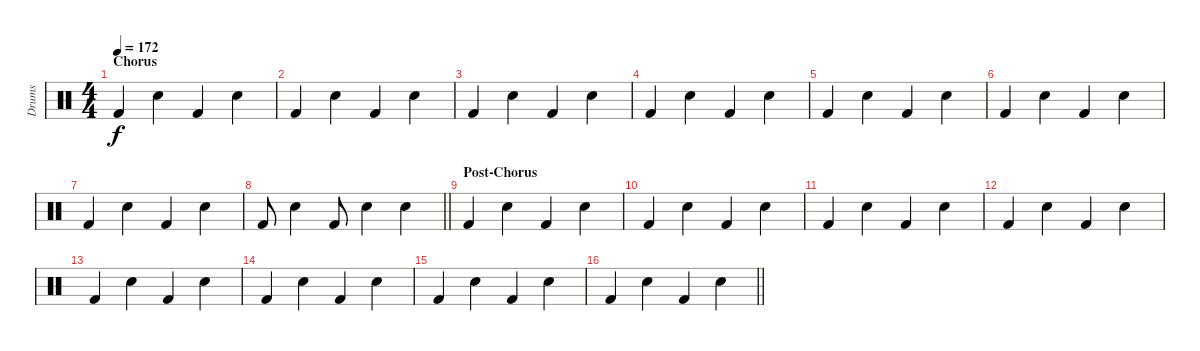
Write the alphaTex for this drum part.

\track ("Drums" "Drums") {instrument percussion}
\staff {score}
\articulation defaults
\ts (4 4)
\section ("" "Chorus")
\tempo 172
\clef neutral
\ks c "Kick (hit) 2".4{dy f} "Snare (hit) 2".4 "Kick (hit) 2".4 "Snare (hit) 2".4
|
"Kick (hit) 2".4 "Snare (hit) 2".4 "Kick (hit) 2".4 "Snare (hit) 2".4 |
"Kick (hit) 2".4 "Snare (hit) 2".4 "Kick (hit) 2".4 "Snare (hit) 2".4 |
"Kick (hit) 2".4 "Snare (hit) 2".4 "Kick (hit) 2".4 "Snare (hit) 2".4 |
"Kick (hit) 2".4 "Snare (hit) 2".4 "Kick (hit) 2".4 "Snare (hit) 2".4 |
"Kick (hit) 2".4 "Snare (hit) 2".4 "Kick (hit) 2".4 "Snare (hit) 2".4 |
"Kick (hit) 2".4 "Snare (hit) 2".4 "Kick (hit) 2".4 "Snare (hit) 2".4 |
\barLineRight lightlight "Kick (hit) 2".8 "Snare (hit) 2".4 "Kick (hit) 2".8 "Snare (hit) 2".4 "Snare (hit) 2".4
|
\section ("" "Post-Chorus")
"Kick (hit) 2".4 "Snare (hit) 2".4 "Kick (hit) 2".4 "Snare (hit) 2".4 |
"Kick (hit) 2".4 "Snare (hit) 2".4 "Kick (hit) 2".4 "Snare (hit) 2".4 |
"Kick (hit) 2".4 "Snare (hit) 2".4 "Kick (hit) 2".4 "Snare (hit) 2".4 |
"Kick (hit) 2".4 "Snare (hit) 2".4 "Kick (hit) 2".4 "Snare (hit) 2".4 |
"Kick (hit) 2".4 "Snare (hit) 2".4 "Kick (hit) 2".4 "Snare (hit) 2".4 |
"Kick (hit) 2".4 "Snare (hit) 2".4 "Kick (hit) 2".4 "Snare (hit) 2".4 |
"Kick (hit) 2".4 "Snare (hit) 2".4 "Kick (hit) 2".4 "Snare (hit) 2".4 |
\barLineRight lightlight "Kick (hit) 2".4 "Snare (hit) 2".4 "Kick (hit) 2".4 "Snare (hit) 2".4
